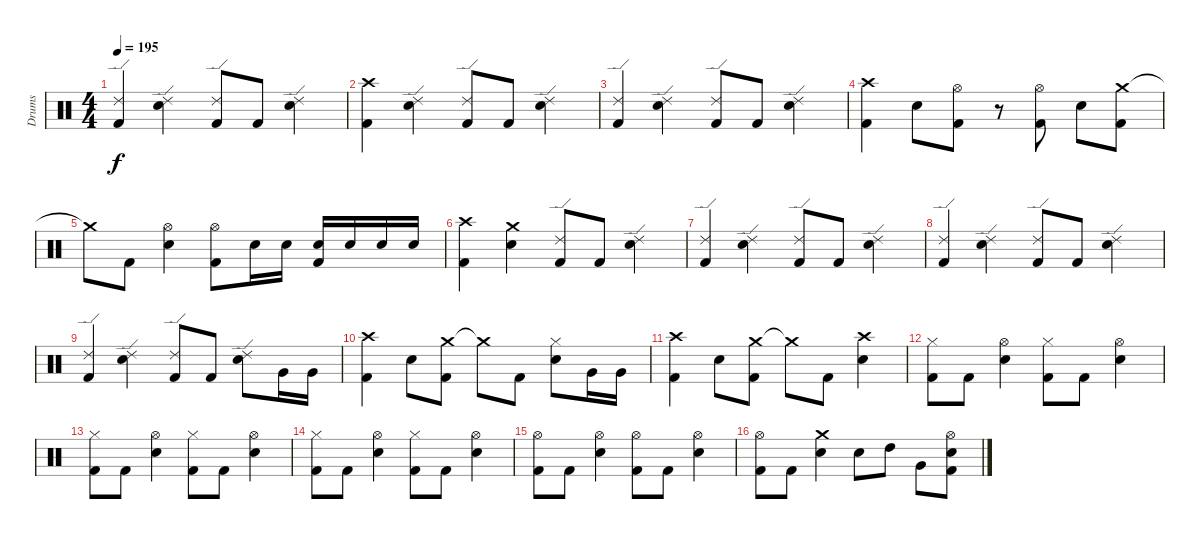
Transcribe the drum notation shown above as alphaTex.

\track ("Drums" "Drums") {instrument percussion}
\staff {score}
\articulation defaults
\ts (4 4)
\tempo 195
\clef neutral
\ks c
("Ride (edge) 2" "Kick (hit) 2").4{dy f} ("Ride (edge) 2" "Snare (hit) 2").4 ("Ride (edge) 2" "Kick (hit) 2").8 "Kick (hit) 2".8 ("Ride (edge) 2" "Snare (hit) 2").4 |
("Crash high (hit)" "Kick (hit) 2").4 ("Ride (edge) 2" "Snare (hit) 2").4 ("Ride (edge) 2" "Kick (hit) 2").8 "Kick (hit) 2".8 ("Ride (edge) 2" "Snare (hit) 2").4 |
("Ride (edge) 2" "Kick (hit) 2").4 ("Ride (edge) 2" "Snare (hit) 2").4 ("Ride (edge) 2" "Kick (hit) 2").8 "Kick (hit) 2".8 ("Ride (edge) 2" "Snare (hit) 2").4 |
("Crash high (hit)" "Kick (hit) 2").4 "Snare (hit) 2".8 ("Hi-Hat (open)" "Kick (hit) 2").8 r.8 ("Hi-Hat (open)" "Kick (hit) 2").8 "Snare (hit) 2".8 ("Crash medium (hit)" "Kick (hit) 2").8 |
"Crash medium (hit)"{t}.8 "Kick (hit) 2".8 ("Hi-Hat (open)" "Snare (hit) 2").4 ("Hi-Hat (open)" "Kick (hit) 2").8 "Snare (hit) 2".16 "Snare (hit) 2".16 ("Snare (hit) 2" "Kick (hit) 2").16 "Snare (hit) 2".16 "Snare (hit) 2".16 "Snare (hit) 2".16 |
("Crash high (hit)" "Kick (hit) 2").4 ("Crash medium (hit)" "Snare (hit) 2").4 ("Ride (edge) 2" "Kick (hit) 2").8 "Kick (hit) 2".8 ("Ride (edge) 2" "Snare (hit) 2").4 |
("Ride (edge) 2" "Kick (hit) 2").4 ("Ride (edge) 2" "Snare (hit) 2").4 ("Ride (edge) 2" "Kick (hit) 2").8 "Kick (hit) 2".8 ("Ride (edge) 2" "Snare (hit) 2").4 |
("Ride (edge) 2" "Kick (hit) 2").4 ("Ride (edge) 2" "Snare (hit) 2").4 ("Ride (edge) 2" "Kick (hit) 2").8 "Kick (hit) 2".8 ("Ride (edge) 2" "Snare (hit) 2").4 |
("Ride (edge) 2" "Kick (hit) 2").4 ("Ride (edge) 2" "Snare (hit) 2").4 ("Ride (edge) 2" "Kick (hit) 2").8 "Kick (hit) 2".8 ("Ride (edge) 2" "Snare (hit) 2").8 "Very Low Tom (hit)".16 "Very Low Tom (hit)".16 |
("Crash high (hit)" "Kick (hit) 2").4 "Snare (hit) 2".8 ("Crash medium (hit)" "Kick (hit) 2").8 "Crash medium (hit)"{t}.8 "Kick (hit) 2".8 ("Hi-Hat (closed)" "Snare (hit) 2").8 "Very Low Tom (hit)".16 "Very Low Tom (hit)".16 |
("Crash high (hit)" "Kick (hit) 2").4 "Snare (hit) 2".8 ("Crash medium (hit)" "Kick (hit) 2").8 "Crash medium (hit)"{t}.8 "Kick (hit) 2".8 ("Crash high (hit)" "Snare (hit) 2").4 |
("Hi-Hat (closed)" "Kick (hit) 2").8 "Kick (hit) 2".8 ("Hi-Hat (open)" "Snare (hit) 2").4 ("Hi-Hat (closed)" "Kick (hit) 2").8 "Kick (hit) 2".8 ("Hi-Hat (open)" "Snare (hit) 2").4 |
("Hi-Hat (closed)" "Kick (hit) 2").8 "Kick (hit) 2".8 ("Hi-Hat (open)" "Snare (hit) 2").4 ("Hi-Hat (closed)" "Kick (hit) 2").8 "Kick (hit) 2".8 ("Hi-Hat (open)" "Snare (hit) 2").4 |
("Hi-Hat (closed)" "Kick (hit) 2").8 "Kick (hit) 2".8 ("Hi-Hat (open)" "Snare (hit) 2").4 ("Hi-Hat (closed)" "Kick (hit) 2").8 "Kick (hit) 2".8 ("Hi-Hat (open)" "Snare (hit) 2").4 |
("Hi-Hat (open)" "Kick (hit) 2").8 "Kick (hit) 2".8 ("Hi-Hat (open)" "Snare (hit) 2").4 ("Hi-Hat (open)" "Kick (hit) 2").8 "Kick (hit) 2".8 ("Hi-Hat (open)" "Snare (hit) 2").4 |
("Hi-Hat (open)" "Kick (hit) 2").8 "Kick (hit) 2".8 ("Crash medium (hit)" "Snare (hit) 2").4 "Snare (hit) 2".8 "High Tom (hit)".8 "Very Low Tom (hit)".8 ("Hi-Hat (open)" "Snare (hit) 2" "Kick (hit) 2").8
